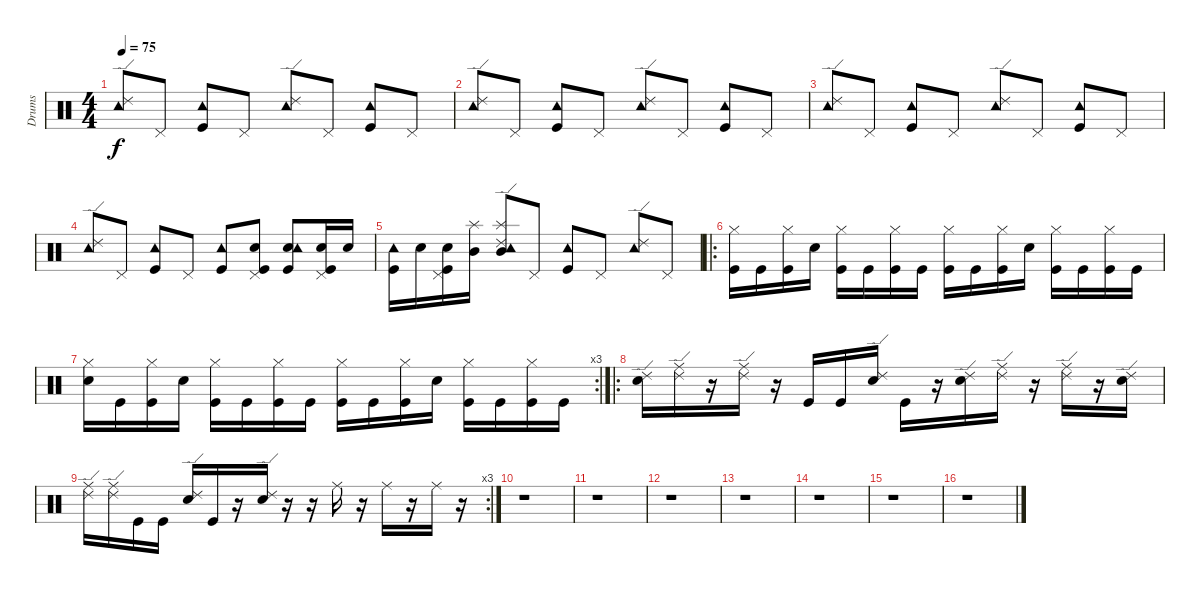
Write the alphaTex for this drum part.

\track ("Drums" "Drums") {instrument percussion}
\staff {score}
\articulation defaults
\ts (4 4)
\tempo 75
\clef neutral
\ks c
("Ride (edge) 2" "Tambourine (hit)").8{dy f} "Pedal Hi-Hat (hit)".8 ("Kick (hit)" "Tambourine (hit)").8 "Pedal Hi-Hat (hit)".8 ("Ride (edge) 2" "Tambourine (hit)").8 "Pedal Hi-Hat (hit)".8 ("Kick (hit)" "Tambourine (hit)").8 "Pedal Hi-Hat (hit)".8 |
("Ride (edge) 2" "Tambourine (hit)").8 "Pedal Hi-Hat (hit)".8 ("Kick (hit)" "Tambourine (hit)").8 "Pedal Hi-Hat (hit)".8 ("Ride (edge) 2" "Tambourine (hit)").8 "Pedal Hi-Hat (hit)".8 ("Kick (hit)" "Tambourine (hit)").8 "Pedal Hi-Hat (hit)".8 |
("Ride (edge) 2" "Tambourine (hit)").8 "Pedal Hi-Hat (hit)".8 ("Kick (hit)" "Tambourine (hit)").8 "Pedal Hi-Hat (hit)".8 ("Ride (edge) 2" "Tambourine (hit)").8 "Pedal Hi-Hat (hit)".8 ("Kick (hit)" "Tambourine (hit)").8 "Pedal Hi-Hat (hit)".8 |
("Ride (edge) 2" "Tambourine (hit)").8 "Pedal Hi-Hat (hit)".8 ("Kick (hit)" "Tambourine (hit)").8 "Pedal Hi-Hat (hit)".8 ("Kick (hit)" "Tambourine (hit)").8 ("Snare (hit) 2" "Kick (hit)" "Pedal Hi-Hat (hit)").8 ("Snare (hit) 2" "Kick (hit)" "Tambourine (hit)").8 ("Snare (hit) 2" "Kick (hit)" "Pedal Hi-Hat (hit)").16 "Snare (hit) 2".16 |
("Kick (hit)" "Tambourine (hit)").16 "Snare (hit) 2".16 ("Snare (hit) 2" "Kick (hit)" "Pedal Hi-Hat (hit)").16 ("Splash (hit)" "Mid Tom (hit)").16 ("Splash (hit)" "Mid Tom (hit)" "Ride (edge) 2" "Tambourine (hit)").8 "Pedal Hi-Hat (hit)".8 ("Kick (hit)" "Tambourine (hit)").8 "Pedal Hi-Hat (hit)".8 ("Ride (edge) 2" "Tambourine (hit)").8 "Pedal Hi-Hat (hit)".8 |
\ro
("Kick (hit)" "Hi-Hat (closed)").16 "Kick (hit)".16 ("Kick (hit)" "Hi-Hat (closed)").16 "Snare (hit) 2".16 ("Kick (hit)" "Hi-Hat (closed)").16 "Kick (hit)".16 ("Kick (hit)" "Hi-Hat (closed)").16 "Kick (hit)".16 ("Kick (hit)" "Hi-Hat (closed)").16 "Kick (hit)".16 ("Kick (hit)" "Hi-Hat (closed)").16 "Snare (hit) 2".16 ("Kick (hit)" "Hi-Hat (closed)").16 "Kick (hit)".16 ("Kick (hit)" "Hi-Hat (closed)").16 "Kick (hit)".16 |
\rc 3
("Snare (hit) 2" "Hi-Hat (closed)").16 "Kick (hit)".16 ("Kick (hit)" "Hi-Hat (closed)").16 "Snare (hit) 2".16 ("Kick (hit)" "Hi-Hat (closed)").16 "Kick (hit)".16 ("Kick (hit)" "Hi-Hat (closed)").16 "Kick (hit)".16 ("Kick (hit)" "Hi-Hat (closed)").16 "Kick (hit)".16 ("Kick (hit)" "Hi-Hat (closed)").16 "Snare (hit) 2".16 ("Kick (hit)" "Hi-Hat (closed)").16 "Kick (hit)".16 ("Kick (hit)" "Hi-Hat (closed)").16 "Kick (hit)".16 |
\ro
("Ride (edge) 2" "Snare (hit) 2").16 ("Ride (middle)" "Ride (edge) 2").16 r.16 ("Ride (middle)" "Ride (edge) 2").16 r.16 "Kick (hit)".16 "Kick (hit)".16 ("Ride (edge) 2" "Snare (hit) 2").16 "Kick (hit)".16 r.16 ("Ride (edge) 2" "Snare (hit) 2").16 ("Ride (middle)" "Ride (edge) 2").16 r.16 ("Ride (middle)" "Ride (edge) 2").16 r.16 ("Ride (edge) 2" "Snare (hit) 2").16 |
\rc 3
("Ride (middle)" "Ride (edge) 2").16 ("Ride (middle)" "Ride (edge) 2").16 "Kick (hit)".16 "Kick (hit)".16 ("Ride (edge) 2" "Snare (hit) 2").16 "Kick (hit)".16 r.16 ("Ride (edge) 2" "Snare (hit) 2").16 r.16 r.16 "Ride (middle)".16 r.16 "Ride (middle)".16 r.16 "Ride (middle)".16 r.16 |
r.1 |
r.1 |
r.1 |
r.1 |
r.1 |
r.1 |
r.1
